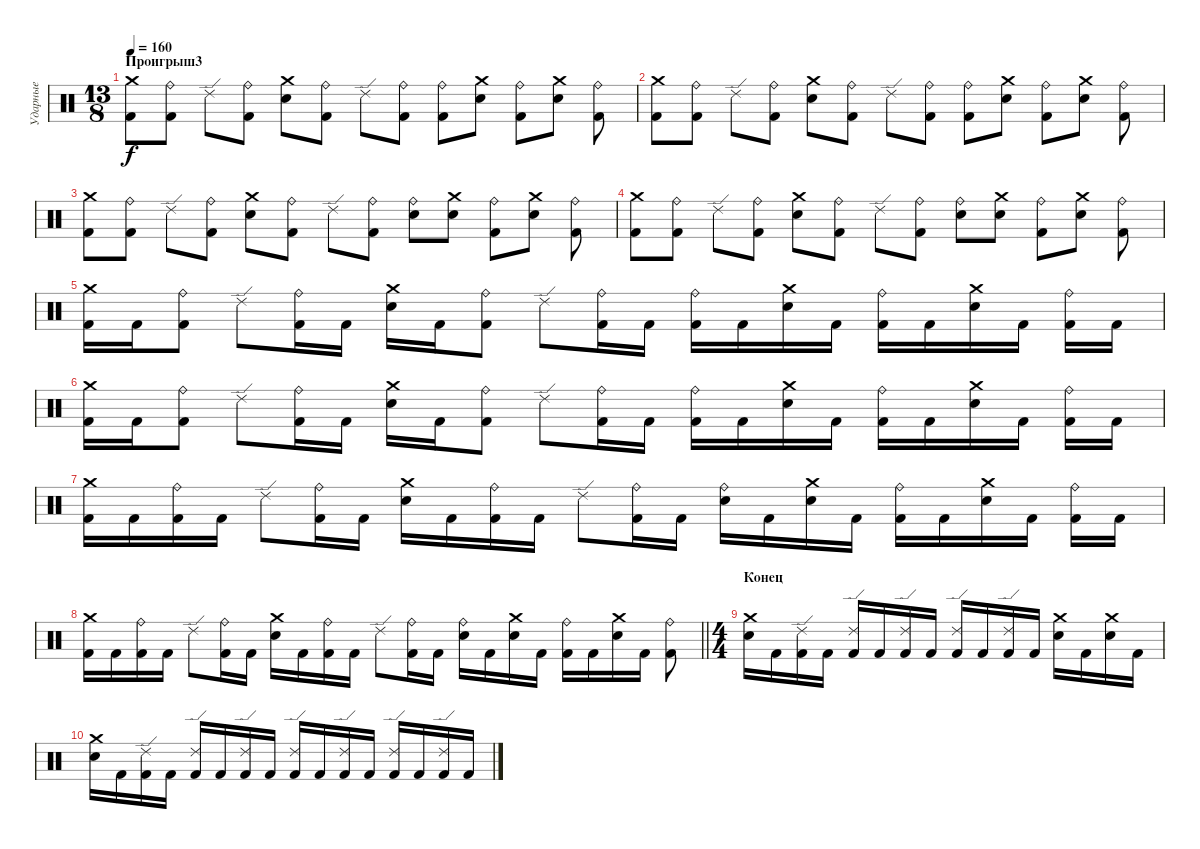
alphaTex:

\track ("Ударные" "Ударные") {instrument percussion}
\staff {score}
\articulation defaults
\ts (13 8)
\section ("" "Проигрыш3")
\tempo 160
\clef neutral
\ks c
("Crash medium (hit)" "Kick (hit) 2").8{dy f} ("Ride (bell)" "Kick (hit) 2").8 "Ride (edge) 2".8 ("Ride (bell)" "Kick (hit) 2").8 ("Crash medium (hit)" "Electric Snare (hit)").8 ("Ride (bell)" "Kick (hit) 2").8 "Ride (edge) 2".8 ("Ride (bell)" "Kick (hit) 2").8 ("Ride (bell)" "Kick (hit) 2").8 ("Crash medium (hit)" "Electric Snare (hit)").8 ("Ride (bell)" "Kick (hit) 2").8 ("Crash medium (hit)" "Electric Snare (hit)").8 ("Ride (bell)" "Kick (hit) 2").8 |
("Crash medium (hit)" "Kick (hit) 2").8 ("Ride (bell)" "Kick (hit) 2").8 "Ride (edge) 2".8 ("Ride (bell)" "Kick (hit) 2").8 ("Crash medium (hit)" "Electric Snare (hit)").8 ("Ride (bell)" "Kick (hit) 2").8 "Ride (edge) 2".8 ("Ride (bell)" "Kick (hit) 2").8 ("Ride (bell)" "Kick (hit) 2").8 ("Crash medium (hit)" "Electric Snare (hit)").8 ("Ride (bell)" "Kick (hit) 2").8 ("Crash medium (hit)" "Electric Snare (hit)").8 ("Ride (bell)" "Kick (hit) 2").8 |
("Crash medium (hit)" "Kick (hit) 2").8 ("Ride (bell)" "Kick (hit) 2").8 "Ride (edge) 2".8 ("Ride (bell)" "Kick (hit) 2").8 ("Crash medium (hit)" "Electric Snare (hit)").8 ("Ride (bell)" "Kick (hit) 2").8 "Ride (edge) 2".8 ("Ride (bell)" "Kick (hit) 2").8 ("Ride (bell)" "Electric Snare (hit)").8 ("Crash medium (hit)" "Electric Snare (hit)").8 ("Ride (bell)" "Kick (hit) 2").8 ("Crash medium (hit)" "Electric Snare (hit)").8 ("Ride (bell)" "Kick (hit) 2").8 |
("Crash medium (hit)" "Kick (hit) 2").8 ("Ride (bell)" "Kick (hit) 2").8 "Ride (edge) 2".8 ("Ride (bell)" "Kick (hit) 2").8 ("Crash medium (hit)" "Electric Snare (hit)").8 ("Ride (bell)" "Kick (hit) 2").8 "Ride (edge) 2".8 ("Ride (bell)" "Kick (hit) 2").8 ("Ride (bell)" "Electric Snare (hit)").8 ("Crash medium (hit)" "Electric Snare (hit)").8 ("Ride (bell)" "Kick (hit) 2").8 ("Crash medium (hit)" "Electric Snare (hit)").8 ("Ride (bell)" "Kick (hit) 2").8 |
("Crash medium (hit)" "Kick (hit) 2").16 "Kick (hit) 2".16 ("Ride (bell)" "Kick (hit) 2").8 "Ride (edge) 2".8 ("Ride (bell)" "Kick (hit) 2").16 "Kick (hit) 2".16 ("Crash medium (hit)" "Electric Snare (hit)").16 "Kick (hit) 2".16 ("Ride (bell)" "Kick (hit) 2").8 "Ride (edge) 2".8 ("Ride (bell)" "Kick (hit) 2").16 "Kick (hit) 2".16 ("Ride (bell)" "Kick (hit) 2").16 "Kick (hit) 2".16 ("Crash medium (hit)" "Electric Snare (hit)").16 "Kick (hit) 2".16 ("Ride (bell)" "Kick (hit) 2").16 "Kick (hit) 2".16 ("Crash medium (hit)" "Electric Snare (hit)").16 "Kick (hit) 2".16 ("Ride (bell)" "Kick (hit) 2").16 "Kick (hit) 2".16 |
("Crash medium (hit)" "Kick (hit) 2").16 "Kick (hit) 2".16 ("Ride (bell)" "Kick (hit) 2").8 "Ride (edge) 2".8 ("Ride (bell)" "Kick (hit) 2").16 "Kick (hit) 2".16 ("Crash medium (hit)" "Electric Snare (hit)").16 "Kick (hit) 2".16 ("Ride (bell)" "Kick (hit) 2").8 "Ride (edge) 2".8 ("Ride (bell)" "Kick (hit) 2").16 "Kick (hit) 2".16 ("Ride (bell)" "Kick (hit) 2").16 "Kick (hit) 2".16 ("Crash medium (hit)" "Electric Snare (hit)").16 "Kick (hit) 2".16 ("Ride (bell)" "Kick (hit) 2").16 "Kick (hit) 2".16 ("Crash medium (hit)" "Electric Snare (hit)").16 "Kick (hit) 2".16 ("Ride (bell)" "Kick (hit) 2").16 "Kick (hit) 2".16 |
("Crash medium (hit)" "Kick (hit) 2").16 "Kick (hit) 2".16 ("Ride (bell)" "Kick (hit) 2").16 "Kick (hit) 2".16 "Ride (edge) 2".8 ("Ride (bell)" "Kick (hit) 2").16 "Kick (hit) 2".16 ("Crash medium (hit)" "Electric Snare (hit)").16 "Kick (hit) 2".16 ("Ride (bell)" "Kick (hit) 2").16 "Kick (hit) 2".16 "Ride (edge) 2".8 ("Ride (bell)" "Kick (hit) 2").16 "Kick (hit) 2".16 ("Ride (bell)" "Electric Snare (hit)").16 "Kick (hit) 2".16 ("Crash medium (hit)" "Electric Snare (hit)").16 "Kick (hit) 2".16 ("Ride (bell)" "Kick (hit) 2").16 "Kick (hit) 2".16 ("Crash medium (hit)" "Electric Snare (hit)").16 "Kick (hit) 2".16 ("Ride (bell)" "Kick (hit) 2").16 "Kick (hit) 2".16 |
\barLineRight lightlight
("Crash medium (hit)" "Kick (hit) 2").16 "Kick (hit) 2".16 ("Ride (bell)" "Kick (hit) 2").16 "Kick (hit) 2".16 "Ride (edge) 2".8 ("Ride (bell)" "Kick (hit) 2").16 "Kick (hit) 2".16 ("Crash medium (hit)" "Electric Snare (hit)").16 "Kick (hit) 2".16 ("Ride (bell)" "Kick (hit) 2").16 "Kick (hit) 2".16 "Ride (edge) 2".8 ("Ride (bell)" "Kick (hit) 2").16 "Kick (hit) 2".16 ("Ride (bell)" "Electric Snare (hit)").16 "Kick (hit) 2".16 ("Crash medium (hit)" "Electric Snare (hit)").16 "Kick (hit) 2".16 ("Ride (bell)" "Kick (hit) 2").16 "Kick (hit) 2".16 ("Crash medium (hit)" "Electric Snare (hit)").16 "Kick (hit) 2".16 ("Ride (bell)" "Kick (hit) 2").8 |
\ts (4 4)
\section ("" "Конец")
("Crash medium (hit)" "Electric Snare (hit)").16 "Kick (hit) 2".16 ("Ride (edge) 2" "Kick (hit) 2").16 "Kick (hit) 2".16 ("Ride (edge) 2" "Kick (hit) 2").16 "Kick (hit) 2".16 ("Ride (edge) 2" "Kick (hit) 2").16 "Kick (hit) 2".16 ("Ride (edge) 2" "Kick (hit) 2").16 "Kick (hit) 2".16 ("Ride (edge) 2" "Kick (hit) 2").16 "Kick (hit) 2".16 ("Crash medium (hit)" "Electric Snare (hit)").16 "Kick (hit) 2".16 ("Crash medium (hit)" "Electric Snare (hit)").16 "Kick (hit) 2".16 |
("Crash medium (hit)" "Electric Snare (hit)").16 "Kick (hit) 2".16 ("Ride (edge) 2" "Kick (hit) 2").16 "Kick (hit) 2".16 ("Ride (edge) 2" "Kick (hit) 2").16 "Kick (hit) 2".16 ("Ride (edge) 2" "Kick (hit) 2").16 "Kick (hit) 2".16 ("Ride (edge) 2" "Kick (hit) 2").16 "Kick (hit) 2".16 ("Ride (edge) 2" "Kick (hit) 2").16 "Kick (hit) 2".16 ("Ride (edge) 2" "Kick (hit) 2").16 "Kick (hit) 2".16 ("Ride (edge) 2" "Kick (hit) 2").16 "Kick (hit) 2".16
